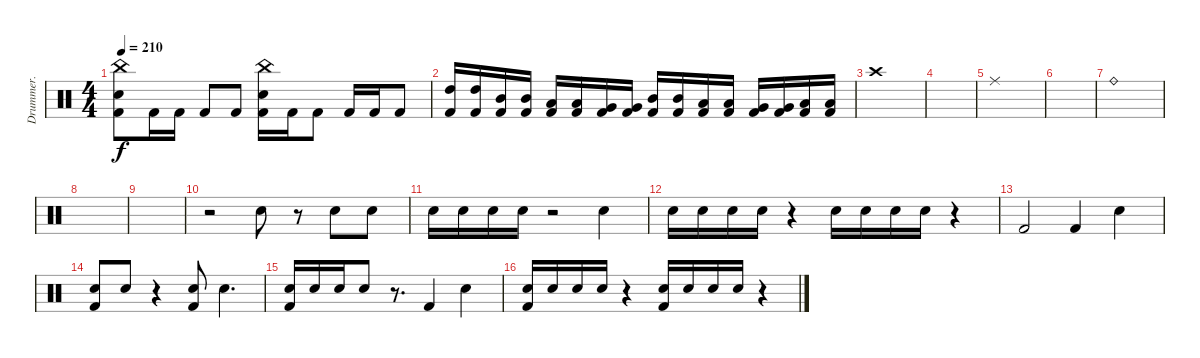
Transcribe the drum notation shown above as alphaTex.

\track ("Drummer." "Drummer.") {instrument percussion}
\staff {score}
\articulation defaults
\ts (4 4)
\tempo 210
\clef neutral
\ks c
("China (hit)" "Snare (hit) 2" "Kick (hit) 2").8{dy f} "Kick (hit) 2".16 "Kick (hit) 2".16 "Kick (hit) 2".8 "Kick (hit) 2".8 ("China (hit)" "Snare (hit) 2" "Kick (hit) 2").16 "Kick (hit) 2".16 "Kick (hit) 2".8 "Kick (hit) 2".16 "Kick (hit) 2".16 "Kick (hit) 2".8 |
("Kick (hit) 2" "High Tom (hit)").16 ("Kick (hit) 2" "High Tom (hit)").16 ("Kick (hit) 2" "Mid Tom (hit)").16 ("Kick (hit) 2" "Mid Tom (hit)").16 ("Kick (hit) 2" "Low Tom (hit)").16 ("Kick (hit) 2" "Low Tom (hit)").16 ("Kick (hit) 2" "Very Low Tom (hit)").16 ("Kick (hit) 2" "Very Low Tom (hit)").16 ("Kick (hit) 2" "Mid Tom (hit)").16 ("Kick (hit) 2" "Mid Tom (hit)").16 ("Kick (hit) 2" "Low Tom (hit)").16 ("Kick (hit) 2" "Low Tom (hit)").16 ("Kick (hit) 2" "Very Low Tom (hit)").16 ("Kick (hit) 2" "Very Low Tom (hit)").16 ("Kick (hit) 2" "Low Floor Tom (hit)").16 ("Kick (hit) 2" "Low Floor Tom (hit)").16 |
"Crash high (hit)".1 |
|
"Ride (middle)".1 |
|
"Ride (bell)".1 |
|
|
r.2 "Snare (hit) 2".8 r.8 "Snare (hit) 2".8 "Snare (hit) 2".8 |
"Snare (hit) 2".16 "Snare (hit) 2".16 "Snare (hit) 2".16 "Snare (hit) 2".16 r.2 "Snare (hit) 2".4 |
"Snare (hit) 2".16 "Snare (hit) 2".16 "Snare (hit) 2".16 "Snare (hit) 2".16 r.4 "Snare (hit) 2".16 "Snare (hit) 2".16 "Snare (hit) 2".16 "Snare (hit) 2".16 r.4 |
"Kick (hit) 2".2 "Kick (hit) 2".4 "Snare (hit) 2".4 |
("Kick (hit) 2" "Snare (hit) 2").8 "Snare (hit) 2".8 r.4 ("Kick (hit) 2" "Snare (hit) 2").8 "Snare (hit) 2".4{d} |
("Kick (hit) 2" "Snare (hit) 2").16 "Snare (hit) 2".16 "Snare (hit) 2".16 "Snare (hit) 2".8 r.8{d} "Kick (hit) 2".4 "Snare (hit) 2".4 |
("Kick (hit) 2" "Snare (hit) 2").16 "Snare (hit) 2".16 "Snare (hit) 2".16 "Snare (hit) 2".16 r.4 ("Kick (hit) 2" "Snare (hit) 2").16 "Snare (hit) 2".16 "Snare (hit) 2".16 "Snare (hit) 2".16 r.4
